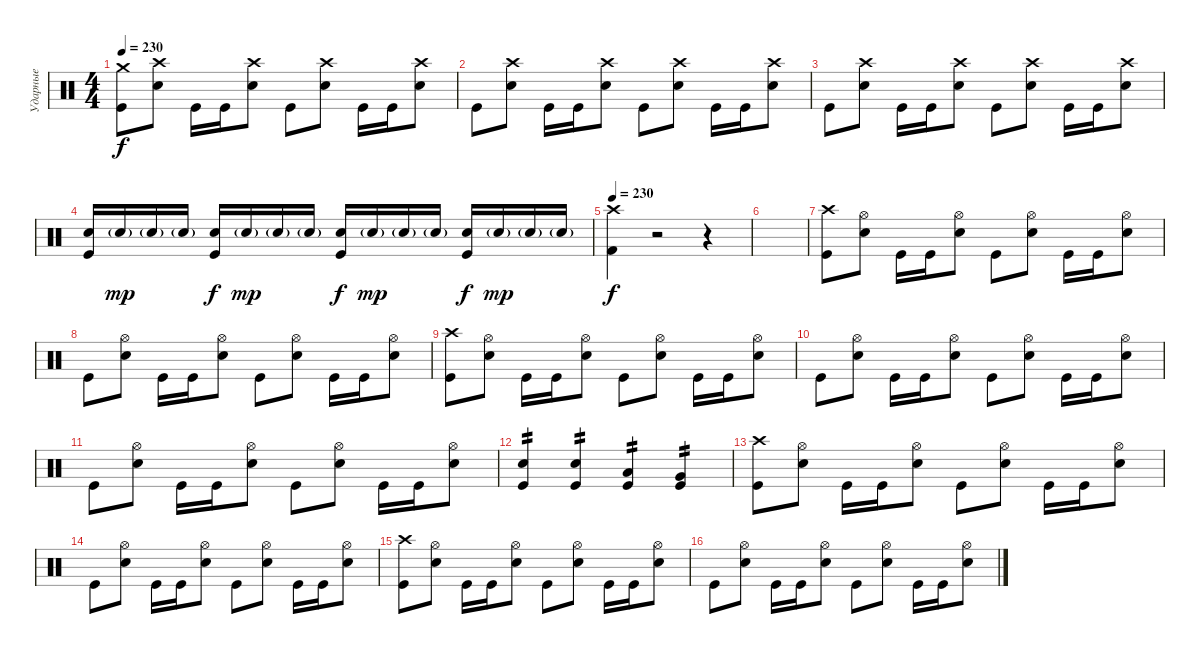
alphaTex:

\track ("Ударные" "Ударные") {instrument percussion}
\staff {score}
\articulation defaults
\ts (4 4)
\tempo 230
\clef neutral
\ks c
("Crash medium (hit)" "Kick (hit)").8{dy f} ("Crash high (hit)" "Electric Snare (hit)").8 "Kick (hit)".16 "Kick (hit)".16 ("Crash high (hit)" "Electric Snare (hit)").8 "Kick (hit)".8 ("Crash high (hit)" "Electric Snare (hit)").8 "Kick (hit)".16 "Kick (hit)".16 ("Crash high (hit)" "Electric Snare (hit)").8 |
"Kick (hit)".8 ("Crash high (hit)" "Electric Snare (hit)").8 "Kick (hit)".16 "Kick (hit)".16 ("Crash high (hit)" "Electric Snare (hit)").8 "Kick (hit)".8 ("Crash high (hit)" "Electric Snare (hit)").8 "Kick (hit)".16 "Kick (hit)".16 ("Crash high (hit)" "Electric Snare (hit)").8 |
"Kick (hit)".8 ("Crash high (hit)" "Electric Snare (hit)").8 "Kick (hit)".16 "Kick (hit)".16 ("Crash high (hit)" "Electric Snare (hit)").8 "Kick (hit)".8 ("Crash high (hit)" "Electric Snare (hit)").8 "Kick (hit)".16 "Kick (hit)".16 ("Crash high (hit)" "Electric Snare (hit)").8 |
("Snare (hit) 2" "Kick (hit)").16 "Snare (hit) 2"{g}.16{dy mp} "Snare (hit) 2"{g}.16 "Snare (hit) 2"{g}.16 ("Snare (hit) 2" "Kick (hit)").16{dy f} "Snare (hit) 2"{g}.16{dy mp} "Snare (hit) 2"{g}.16 "Snare (hit) 2"{g}.16 ("Snare (hit) 2" "Kick (hit)").16{dy f} "Snare (hit) 2"{g}.16{dy mp} "Snare (hit) 2"{g}.16 "Snare (hit) 2"{g}.16 ("Snare (hit) 2" "Kick (hit)").16{dy f} "Snare (hit) 2"{g}.16{dy mp} "Snare (hit) 2"{g}.16 "Snare (hit) 2"{g}.16 |
\tempo 230
("Crash high (hit)" "Kick (hit) 2").4{dy f} r.2 r.4 |
|
("Crash high (hit)" "Kick (hit)").8 ("Hi-Hat (open)" "Electric Snare (hit)").8 "Kick (hit)".16 "Kick (hit)".16 ("Hi-Hat (open)" "Electric Snare (hit)").8 "Kick (hit)".8 ("Hi-Hat (open)" "Electric Snare (hit)").8 "Kick (hit)".16 "Kick (hit)".16 ("Hi-Hat (open)" "Electric Snare (hit)").8 |
"Kick (hit)".8 ("Hi-Hat (open)" "Electric Snare (hit)").8 "Kick (hit)".16 "Kick (hit)".16 ("Hi-Hat (open)" "Electric Snare (hit)").8 "Kick (hit)".8 ("Hi-Hat (open)" "Electric Snare (hit)").8 "Kick (hit)".16 "Kick (hit)".16 ("Hi-Hat (open)" "Electric Snare (hit)").8 |
("Crash high (hit)" "Kick (hit)").8 ("Hi-Hat (open)" "Electric Snare (hit)").8 "Kick (hit)".16 "Kick (hit)".16 ("Hi-Hat (open)" "Electric Snare (hit)").8 "Kick (hit)".8 ("Hi-Hat (open)" "Electric Snare (hit)").8 "Kick (hit)".16 "Kick (hit)".16 ("Hi-Hat (open)" "Electric Snare (hit)").8 |
"Kick (hit)".8 ("Hi-Hat (open)" "Electric Snare (hit)").8 "Kick (hit)".16 "Kick (hit)".16 ("Hi-Hat (open)" "Electric Snare (hit)").8 "Kick (hit)".8 ("Hi-Hat (open)" "Electric Snare (hit)").8 "Kick (hit)".16 "Kick (hit)".16 ("Hi-Hat (open)" "Electric Snare (hit)").8 |
"Kick (hit)".8 ("Hi-Hat (open)" "Electric Snare (hit)").8 "Kick (hit)".16 "Kick (hit)".16 ("Hi-Hat (open)" "Electric Snare (hit)").8 "Kick (hit)".8 ("Hi-Hat (open)" "Electric Snare (hit)").8 "Kick (hit)".16 "Kick (hit)".16 ("Hi-Hat (open)" "Electric Snare (hit)").8 |
("Electric Snare (hit)" "Kick (hit)").4{tp 2} ("Electric Snare (hit)" "Kick (hit)").4{tp 2} ("Low Tom (hit)" "Kick (hit)").4{tp 2} ("Very Low Tom (hit)" "Kick (hit)").4{tp 2} |
("Crash high (hit)" "Kick (hit)").8 ("Hi-Hat (open)" "Electric Snare (hit)").8 "Kick (hit)".16 "Kick (hit)".16 ("Hi-Hat (open)" "Electric Snare (hit)").8 "Kick (hit)".8 ("Hi-Hat (open)" "Electric Snare (hit)").8 "Kick (hit)".16 "Kick (hit)".16 ("Hi-Hat (open)" "Electric Snare (hit)").8 |
"Kick (hit)".8 ("Hi-Hat (open)" "Electric Snare (hit)").8 "Kick (hit)".16 "Kick (hit)".16 ("Hi-Hat (open)" "Electric Snare (hit)").8 "Kick (hit)".8 ("Hi-Hat (open)" "Electric Snare (hit)").8 "Kick (hit)".16 "Kick (hit)".16 ("Hi-Hat (open)" "Electric Snare (hit)").8 |
("Crash high (hit)" "Kick (hit)").8 ("Hi-Hat (open)" "Electric Snare (hit)").8 "Kick (hit)".16 "Kick (hit)".16 ("Hi-Hat (open)" "Electric Snare (hit)").8 "Kick (hit)".8 ("Hi-Hat (open)" "Electric Snare (hit)").8 "Kick (hit)".16 "Kick (hit)".16 ("Hi-Hat (open)" "Electric Snare (hit)").8 |
"Kick (hit)".8 ("Hi-Hat (open)" "Electric Snare (hit)").8 "Kick (hit)".16 "Kick (hit)".16 ("Hi-Hat (open)" "Electric Snare (hit)").8 "Kick (hit)".8 ("Hi-Hat (open)" "Electric Snare (hit)").8 "Kick (hit)".16 "Kick (hit)".16 ("Hi-Hat (open)" "Electric Snare (hit)").8
